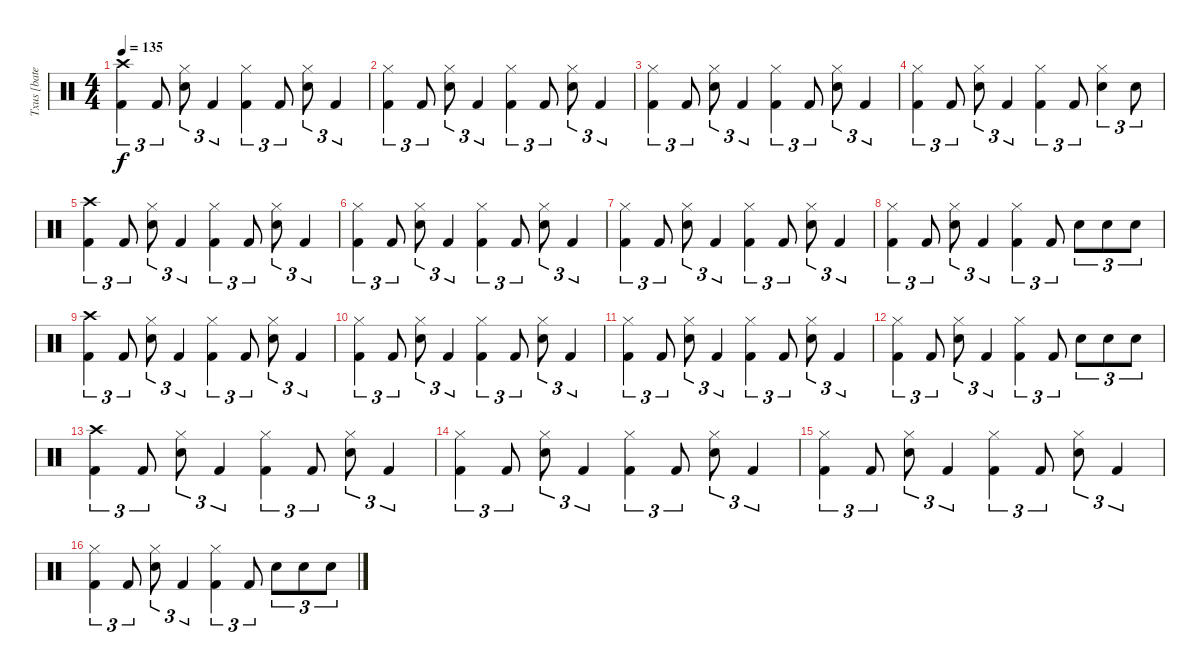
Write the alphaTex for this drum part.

\track ("Txus [bateria]" "Txus [bate") {instrument percussion}
\staff {score}
\articulation defaults
\ts (4 4)
\tempo 135
\clef neutral
\ks c
("Crash high (hit)" "Kick (hit) 2").4{tu (3 2) dy f} "Kick (hit) 2".8{tu (3 2)} ("Hi-Hat (closed)" "Snare (hit) 2").8{tu (3 2)} "Kick (hit) 2".4{tu (3 2)} ("Hi-Hat (closed)" "Kick (hit) 2").4{tu (3 2)} "Kick (hit) 2".8{tu (3 2)} ("Hi-Hat (closed)" "Snare (hit) 2").8{tu (3 2)} "Kick (hit) 2".4{tu (3 2)} |
("Hi-Hat (closed)" "Kick (hit) 2").4{tu (3 2)} "Kick (hit) 2".8{tu (3 2)} ("Hi-Hat (closed)" "Snare (hit) 2").8{tu (3 2)} "Kick (hit) 2".4{tu (3 2)} ("Hi-Hat (closed)" "Kick (hit) 2").4{tu (3 2)} "Kick (hit) 2".8{tu (3 2)} ("Hi-Hat (closed)" "Snare (hit) 2").8{tu (3 2)} "Kick (hit) 2".4{tu (3 2)} |
("Hi-Hat (closed)" "Kick (hit) 2").4{tu (3 2)} "Kick (hit) 2".8{tu (3 2)} ("Hi-Hat (closed)" "Snare (hit) 2").8{tu (3 2)} "Kick (hit) 2".4{tu (3 2)} ("Hi-Hat (closed)" "Kick (hit) 2").4{tu (3 2)} "Kick (hit) 2".8{tu (3 2)} ("Hi-Hat (closed)" "Snare (hit) 2").8{tu (3 2)} "Kick (hit) 2".4{tu (3 2)} |
("Hi-Hat (closed)" "Kick (hit) 2").4{tu (3 2)} "Kick (hit) 2".8{tu (3 2)} ("Hi-Hat (closed)" "Snare (hit) 2").8{tu (3 2)} "Kick (hit) 2".4{tu (3 2)} ("Hi-Hat (closed)" "Kick (hit) 2").4{tu (3 2)} "Kick (hit) 2".8{tu (3 2)} ("Hi-Hat (closed)" "Snare (hit) 2").4{tu (3 2)} "Snare (hit) 2".8{tu (3 2)} |
("Crash high (hit)" "Kick (hit) 2").4{tu (3 2)} "Kick (hit) 2".8{tu (3 2)} ("Hi-Hat (closed)" "Snare (hit) 2").8{tu (3 2)} "Kick (hit) 2".4{tu (3 2)} ("Hi-Hat (closed)" "Kick (hit) 2").4{tu (3 2)} "Kick (hit) 2".8{tu (3 2)} ("Hi-Hat (closed)" "Snare (hit) 2").8{tu (3 2)} "Kick (hit) 2".4{tu (3 2)} |
("Hi-Hat (closed)" "Kick (hit) 2").4{tu (3 2)} "Kick (hit) 2".8{tu (3 2)} ("Hi-Hat (closed)" "Snare (hit) 2").8{tu (3 2)} "Kick (hit) 2".4{tu (3 2)} ("Hi-Hat (closed)" "Kick (hit) 2").4{tu (3 2)} "Kick (hit) 2".8{tu (3 2)} ("Hi-Hat (closed)" "Snare (hit) 2").8{tu (3 2)} "Kick (hit) 2".4{tu (3 2)} |
("Hi-Hat (closed)" "Kick (hit) 2").4{tu (3 2)} "Kick (hit) 2".8{tu (3 2)} ("Hi-Hat (closed)" "Snare (hit) 2").8{tu (3 2)} "Kick (hit) 2".4{tu (3 2)} ("Hi-Hat (closed)" "Kick (hit) 2").4{tu (3 2)} "Kick (hit) 2".8{tu (3 2)} ("Hi-Hat (closed)" "Snare (hit) 2").8{tu (3 2)} "Kick (hit) 2".4{tu (3 2)} |
("Hi-Hat (closed)" "Kick (hit) 2").4{tu (3 2)} "Kick (hit) 2".8{tu (3 2)} ("Hi-Hat (closed)" "Snare (hit) 2").8{tu (3 2)} "Kick (hit) 2".4{tu (3 2)} ("Hi-Hat (closed)" "Kick (hit) 2").4{tu (3 2)} "Kick (hit) 2".8{tu (3 2)} "Snare (hit) 2".8{tu (3 2)} "Snare (hit) 2".8{tu (3 2)} "Snare (hit) 2".8{tu (3 2)} |
("Crash high (hit)" "Kick (hit) 2").4{tu (3 2)} "Kick (hit) 2".8{tu (3 2)} ("Hi-Hat (closed)" "Snare (hit) 2").8{tu (3 2)} "Kick (hit) 2".4{tu (3 2)} ("Hi-Hat (closed)" "Kick (hit) 2").4{tu (3 2)} "Kick (hit) 2".8{tu (3 2)} ("Hi-Hat (closed)" "Snare (hit) 2").8{tu (3 2)} "Kick (hit) 2".4{tu (3 2)} |
("Hi-Hat (closed)" "Kick (hit) 2").4{tu (3 2)} "Kick (hit) 2".8{tu (3 2)} ("Hi-Hat (closed)" "Snare (hit) 2").8{tu (3 2)} "Kick (hit) 2".4{tu (3 2)} ("Hi-Hat (closed)" "Kick (hit) 2").4{tu (3 2)} "Kick (hit) 2".8{tu (3 2)} ("Hi-Hat (closed)" "Snare (hit) 2").8{tu (3 2)} "Kick (hit) 2".4{tu (3 2)} |
("Hi-Hat (closed)" "Kick (hit) 2").4{tu (3 2) volume 11} "Kick (hit) 2".8{tu (3 2)} ("Hi-Hat (closed)" "Snare (hit) 2").8{tu (3 2)} "Kick (hit) 2".4{tu (3 2)} ("Hi-Hat (closed)" "Kick (hit) 2").4{tu (3 2)} "Kick (hit) 2".8{tu (3 2)} ("Hi-Hat (closed)" "Snare (hit) 2").8{tu (3 2)} "Kick (hit) 2".4{tu (3 2)} |
("Hi-Hat (closed)" "Kick (hit) 2").4{tu (3 2)} "Kick (hit) 2".8{tu (3 2)} ("Hi-Hat (closed)" "Snare (hit) 2").8{tu (3 2)} "Kick (hit) 2".4{tu (3 2)} ("Hi-Hat (closed)" "Kick (hit) 2").4{tu (3 2)} "Kick (hit) 2".8{tu (3 2)} "Snare (hit) 2".8{tu (3 2)} "Snare (hit) 2".8{tu (3 2)} "Snare (hit) 2".8{tu (3 2)} |
("Crash high (hit)" "Kick (hit) 2").4{tu (3 2) volume 9} "Kick (hit) 2".8{tu (3 2)} ("Hi-Hat (closed)" "Snare (hit) 2").8{tu (3 2)} "Kick (hit) 2".4{tu (3 2)} ("Hi-Hat (closed)" "Kick (hit) 2").4{tu (3 2)} "Kick (hit) 2".8{tu (3 2)} ("Hi-Hat (closed)" "Snare (hit) 2").8{tu (3 2)} "Kick (hit) 2".4{tu (3 2)} |
("Hi-Hat (closed)" "Kick (hit) 2").4{tu (3 2)} "Kick (hit) 2".8{tu (3 2)} ("Hi-Hat (closed)" "Snare (hit) 2").8{tu (3 2)} "Kick (hit) 2".4{tu (3 2)} ("Hi-Hat (closed)" "Kick (hit) 2").4{tu (3 2)} "Kick (hit) 2".8{tu (3 2)} ("Hi-Hat (closed)" "Snare (hit) 2").8{tu (3 2)} "Kick (hit) 2".4{tu (3 2)} |
("Hi-Hat (closed)" "Kick (hit) 2").4{tu (3 2)} "Kick (hit) 2".8{tu (3 2)} ("Hi-Hat (closed)" "Snare (hit) 2").8{tu (3 2)} "Kick (hit) 2".4{tu (3 2)} ("Hi-Hat (closed)" "Kick (hit) 2").4{tu (3 2)} "Kick (hit) 2".8{tu (3 2)} ("Hi-Hat (closed)" "Snare (hit) 2").8{tu (3 2)} "Kick (hit) 2".4{tu (3 2)} |
("Hi-Hat (closed)" "Kick (hit) 2").4{tu (3 2)} "Kick (hit) 2".8{tu (3 2)} ("Hi-Hat (closed)" "Snare (hit) 2").8{tu (3 2)} "Kick (hit) 2".4{tu (3 2)} ("Hi-Hat (closed)" "Kick (hit) 2").4{tu (3 2)} "Kick (hit) 2".8{tu (3 2)} "Snare (hit) 2".8{tu (3 2)} "Snare (hit) 2".8{tu (3 2)} "Snare (hit) 2".8{tu (3 2)}
